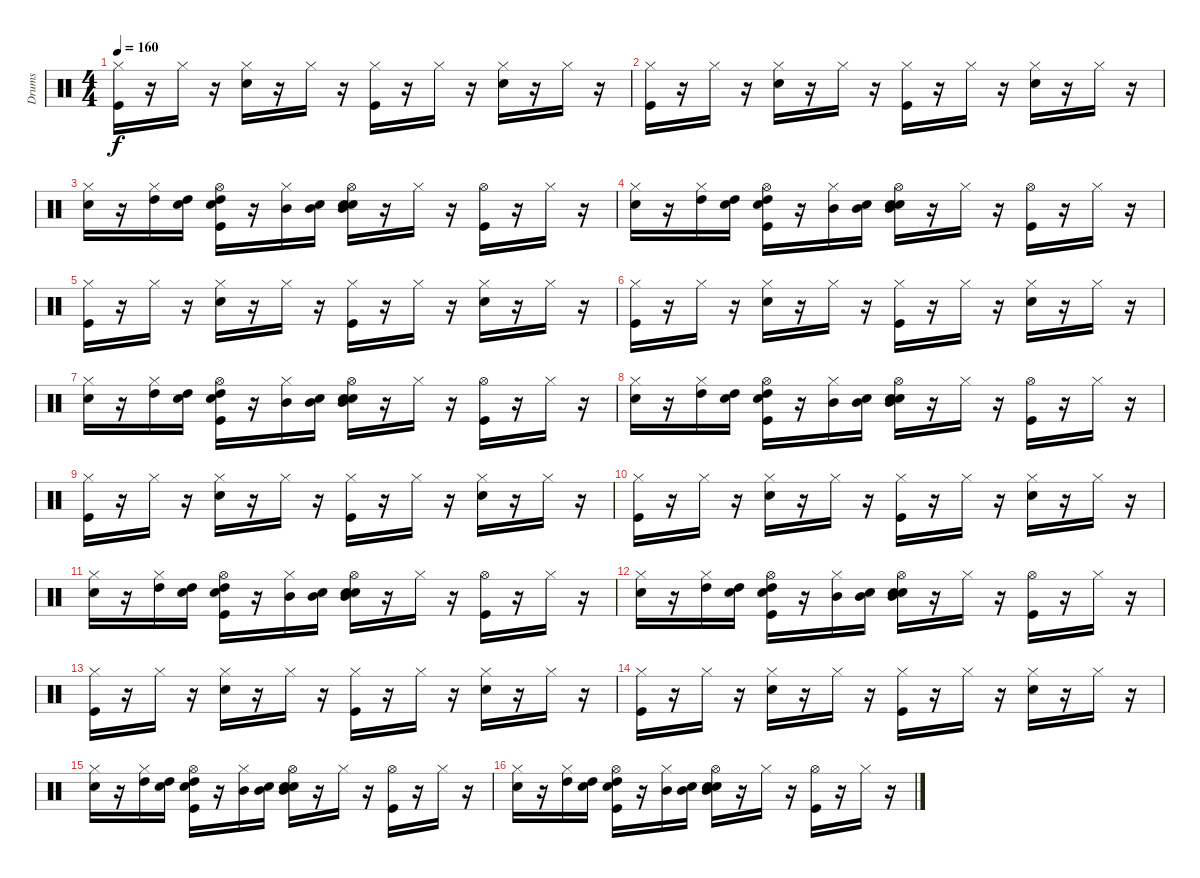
\track ("Drums               " "Drums     ") {instrument percussion}
\staff {score}
\articulation defaults
\ts (4 4)
\tempo 160
\clef neutral
\ks c
("Kick (hit)" "Hi-Hat (closed)").16{dy f} r.16 "Hi-Hat (closed)".16 r.16 ("Snare (hit) 2" "Hi-Hat (closed)").16 r.16 "Hi-Hat (closed)".16 r.16 ("Kick (hit)" "Hi-Hat (closed)").16 r.16 "Hi-Hat (closed)".16 r.16 ("Snare (hit) 2" "Hi-Hat (closed)").16 r.16 "Hi-Hat (closed)".16 r.16 |
("Kick (hit)" "Hi-Hat (closed)").16 r.16 "Hi-Hat (closed)".16 r.16 ("Snare (hit) 2" "Hi-Hat (closed)").16 r.16 "Hi-Hat (closed)".16 r.16 ("Kick (hit)" "Hi-Hat (closed)").16 r.16 "Hi-Hat (closed)".16 r.16 ("Snare (hit) 2" "Hi-Hat (closed)").16 r.16 "Hi-Hat (closed)".16 r.16 |
("Snare (hit) 2" "Hi-Hat (closed)").16 r.16 ("Hi-Hat (closed)" "High Tom (hit)").16 ("Snare (hit)" "High Tom (hit)").16 ("Snare (hit)" "Kick (hit)" "High Tom (hit)" "Hi-Hat (open)").16 r.16 ("Hi-Hat (closed)" "Mid Tom (hit)").16 ("Snare (hit)" "Mid Tom (hit)").16 ("Snare (hit)" "Snare (hit) 2" "Mid Tom (hit)" "Hi-Hat (open)").16 r.16 "Hi-Hat (closed)".16 r.16 ("Kick (hit)" "Hi-Hat (open)").16 r.16 "Hi-Hat (closed)".16 r.16 |
("Snare (hit) 2" "Hi-Hat (closed)").16 r.16 ("Hi-Hat (closed)" "High Tom (hit)").16 ("Snare (hit)" "High Tom (hit)").16 ("Snare (hit)" "Kick (hit)" "High Tom (hit)" "Hi-Hat (open)").16 r.16 ("Hi-Hat (closed)" "Mid Tom (hit)").16 ("Snare (hit)" "Mid Tom (hit)").16 ("Snare (hit)" "Snare (hit) 2" "Mid Tom (hit)" "Hi-Hat (open)").16 r.16 "Hi-Hat (closed)".16 r.16 ("Kick (hit)" "Hi-Hat (open)").16 r.16 "Hi-Hat (closed)".16 r.16 |
("Kick (hit)" "Hi-Hat (closed)").16 r.16 "Hi-Hat (closed)".16 r.16 ("Snare (hit) 2" "Hi-Hat (closed)").16 r.16 "Hi-Hat (closed)".16 r.16 ("Kick (hit)" "Hi-Hat (closed)").16 r.16 "Hi-Hat (closed)".16 r.16 ("Snare (hit) 2" "Hi-Hat (closed)").16 r.16 "Hi-Hat (closed)".16 r.16 |
("Kick (hit)" "Hi-Hat (closed)").16 r.16 "Hi-Hat (closed)".16 r.16 ("Snare (hit) 2" "Hi-Hat (closed)").16 r.16 "Hi-Hat (closed)".16 r.16 ("Kick (hit)" "Hi-Hat (closed)").16 r.16 "Hi-Hat (closed)".16 r.16 ("Snare (hit) 2" "Hi-Hat (closed)").16 r.16 "Hi-Hat (closed)".16 r.16 |
("Snare (hit) 2" "Hi-Hat (closed)").16 r.16 ("Hi-Hat (closed)" "High Tom (hit)").16 ("Snare (hit)" "High Tom (hit)").16 ("Snare (hit)" "Kick (hit)" "High Tom (hit)" "Hi-Hat (open)").16 r.16 ("Hi-Hat (closed)" "Mid Tom (hit)").16 ("Snare (hit)" "Mid Tom (hit)").16 ("Snare (hit)" "Snare (hit) 2" "Mid Tom (hit)" "Hi-Hat (open)").16 r.16 "Hi-Hat (closed)".16 r.16 ("Kick (hit)" "Hi-Hat (open)").16 r.16 "Hi-Hat (closed)".16 r.16 |
("Snare (hit) 2" "Hi-Hat (closed)").16 r.16 ("Hi-Hat (closed)" "High Tom (hit)").16 ("Snare (hit)" "High Tom (hit)").16 ("Snare (hit)" "Kick (hit)" "High Tom (hit)" "Hi-Hat (open)").16 r.16 ("Hi-Hat (closed)" "Mid Tom (hit)").16 ("Snare (hit)" "Mid Tom (hit)").16 ("Snare (hit)" "Snare (hit) 2" "Mid Tom (hit)" "Hi-Hat (open)").16 r.16 "Hi-Hat (closed)".16 r.16 ("Kick (hit)" "Hi-Hat (open)").16 r.16 "Hi-Hat (closed)".16 r.16 |
("Kick (hit)" "Hi-Hat (closed)").16 r.16 "Hi-Hat (closed)".16 r.16 ("Snare (hit) 2" "Hi-Hat (closed)").16 r.16 "Hi-Hat (closed)".16 r.16 ("Kick (hit)" "Hi-Hat (closed)").16 r.16 "Hi-Hat (closed)".16 r.16 ("Snare (hit) 2" "Hi-Hat (closed)").16 r.16 "Hi-Hat (closed)".16 r.16 |
("Kick (hit)" "Hi-Hat (closed)").16 r.16 "Hi-Hat (closed)".16 r.16 ("Snare (hit) 2" "Hi-Hat (closed)").16 r.16 "Hi-Hat (closed)".16 r.16 ("Kick (hit)" "Hi-Hat (closed)").16 r.16 "Hi-Hat (closed)".16 r.16 ("Snare (hit) 2" "Hi-Hat (closed)").16 r.16 "Hi-Hat (closed)".16 r.16 |
("Snare (hit) 2" "Hi-Hat (closed)").16 r.16 ("Hi-Hat (closed)" "High Tom (hit)").16 ("Snare (hit)" "High Tom (hit)").16 ("Snare (hit)" "Kick (hit)" "High Tom (hit)" "Hi-Hat (open)").16 r.16 ("Hi-Hat (closed)" "Mid Tom (hit)").16 ("Snare (hit)" "Mid Tom (hit)").16 ("Snare (hit)" "Snare (hit) 2" "Mid Tom (hit)" "Hi-Hat (open)").16 r.16 "Hi-Hat (closed)".16 r.16 ("Kick (hit)" "Hi-Hat (open)").16 r.16 "Hi-Hat (closed)".16 r.16 |
("Snare (hit) 2" "Hi-Hat (closed)").16 r.16 ("Hi-Hat (closed)" "High Tom (hit)").16 ("Snare (hit)" "High Tom (hit)").16 ("Snare (hit)" "Kick (hit)" "High Tom (hit)" "Hi-Hat (open)").16 r.16 ("Hi-Hat (closed)" "Mid Tom (hit)").16 ("Snare (hit)" "Mid Tom (hit)").16 ("Snare (hit)" "Snare (hit) 2" "Mid Tom (hit)" "Hi-Hat (open)").16 r.16 "Hi-Hat (closed)".16 r.16 ("Kick (hit)" "Hi-Hat (open)").16 r.16 "Hi-Hat (closed)".16 r.16 |
("Kick (hit)" "Hi-Hat (closed)").16 r.16 "Hi-Hat (closed)".16 r.16 ("Snare (hit) 2" "Hi-Hat (closed)").16 r.16 "Hi-Hat (closed)".16 r.16 ("Kick (hit)" "Hi-Hat (closed)").16 r.16 "Hi-Hat (closed)".16 r.16 ("Snare (hit) 2" "Hi-Hat (closed)").16 r.16 "Hi-Hat (closed)".16 r.16 |
("Kick (hit)" "Hi-Hat (closed)").16 r.16 "Hi-Hat (closed)".16 r.16 ("Snare (hit) 2" "Hi-Hat (closed)").16 r.16 "Hi-Hat (closed)".16 r.16 ("Kick (hit)" "Hi-Hat (closed)").16 r.16 "Hi-Hat (closed)".16 r.16 ("Snare (hit) 2" "Hi-Hat (closed)").16 r.16 "Hi-Hat (closed)".16 r.16 |
("Snare (hit) 2" "Hi-Hat (closed)").16 r.16 ("Hi-Hat (closed)" "High Tom (hit)").16 ("Snare (hit)" "High Tom (hit)").16 ("Snare (hit)" "Kick (hit)" "High Tom (hit)" "Hi-Hat (open)").16 r.16 ("Hi-Hat (closed)" "Mid Tom (hit)").16 ("Snare (hit)" "Mid Tom (hit)").16 ("Snare (hit)" "Snare (hit) 2" "Mid Tom (hit)" "Hi-Hat (open)").16 r.16 "Hi-Hat (closed)".16 r.16 ("Kick (hit)" "Hi-Hat (open)").16 r.16 "Hi-Hat (closed)".16 r.16 |
("Snare (hit) 2" "Hi-Hat (closed)").16 r.16 ("Hi-Hat (closed)" "High Tom (hit)").16 ("Snare (hit)" "High Tom (hit)").16 ("Snare (hit)" "Kick (hit)" "High Tom (hit)" "Hi-Hat (open)").16 r.16 ("Hi-Hat (closed)" "Mid Tom (hit)").16 ("Snare (hit)" "Mid Tom (hit)").16 ("Snare (hit)" "Snare (hit) 2" "Mid Tom (hit)" "Hi-Hat (open)").16 r.16 "Hi-Hat (closed)".16 r.16 ("Kick (hit)" "Hi-Hat (open)").16 r.16 "Hi-Hat (closed)".16 r.16
